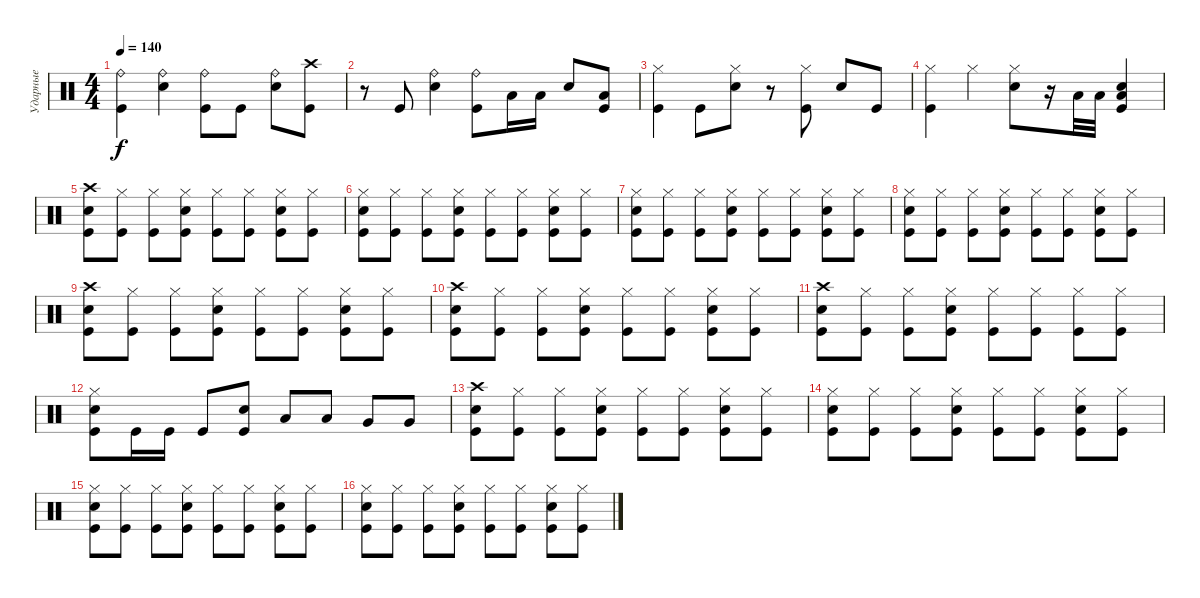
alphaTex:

\track ("Ударные" "Ударные") {instrument percussion}
\staff {score}
\articulation defaults
\ts (4 4)
\tempo 140
\clef neutral
\ks c
("Ride (bell)" "Kick (hit)").4{dy f} ("Ride (bell)" "Electric Snare (hit)").4 ("Ride (bell)" "Kick (hit)").8 "Kick (hit)".8 ("Ride (bell)" "Electric Snare (hit)").8 ("Crash high (hit)" "Kick (hit)").8 |
r.8 "Kick (hit)".8 ("Ride (bell)" "Electric Snare (hit)").4 ("Ride (bell)" "Kick (hit)").8 "Low Tom (hit)".16 "Low Tom (hit)".16 "Electric Snare (hit)".8 ("Low Tom (hit)" "Kick (hit)").8 |
("Hi-Hat (closed)" "Kick (hit)").4 "Kick (hit)".8 ("Hi-Hat (closed)" "Electric Snare (hit)").8 r.8 ("Hi-Hat (closed)" "Kick (hit)").8 "Electric Snare (hit)".8 "Kick (hit)".8 |
("Hi-Hat (closed)" "Kick (hit)").4 "Hi-Hat (closed)".4 ("Hi-Hat (closed)" "Electric Snare (hit)").8 r.16 "Low Tom (hit)".32 "Low Tom (hit)".32 ("Low Tom (hit)" "Electric Snare (hit)" "Kick (hit)").4 |
("Crash high (hit)" "Electric Snare (hit)" "Kick (hit)").8 ("Hi-Hat (closed)" "Kick (hit)").8 ("Hi-Hat (closed)" "Kick (hit)").8 ("Hi-Hat (closed)" "Electric Snare (hit)" "Kick (hit)").8 ("Hi-Hat (closed)" "Kick (hit)").8 ("Hi-Hat (closed)" "Kick (hit)").8 ("Hi-Hat (closed)" "Electric Snare (hit)" "Kick (hit)").8 ("Hi-Hat (closed)" "Kick (hit)").8 |
("Hi-Hat (closed)" "Electric Snare (hit)" "Kick (hit)").8 ("Hi-Hat (closed)" "Kick (hit)").8 ("Hi-Hat (closed)" "Kick (hit)").8 ("Hi-Hat (closed)" "Electric Snare (hit)" "Kick (hit)").8 ("Hi-Hat (closed)" "Kick (hit)").8 ("Hi-Hat (closed)" "Kick (hit)").8 ("Hi-Hat (closed)" "Electric Snare (hit)" "Kick (hit)").8 ("Hi-Hat (closed)" "Kick (hit)").8 |
("Hi-Hat (closed)" "Electric Snare (hit)" "Kick (hit)").8 ("Hi-Hat (closed)" "Kick (hit)").8 ("Hi-Hat (closed)" "Kick (hit)").8 ("Hi-Hat (closed)" "Electric Snare (hit)" "Kick (hit)").8 ("Hi-Hat (closed)" "Kick (hit)").8 ("Hi-Hat (closed)" "Kick (hit)").8 ("Hi-Hat (closed)" "Electric Snare (hit)" "Kick (hit)").8 ("Hi-Hat (closed)" "Kick (hit)").8 |
("Hi-Hat (closed)" "Electric Snare (hit)" "Kick (hit)").8 ("Hi-Hat (closed)" "Kick (hit)").8 ("Hi-Hat (closed)" "Kick (hit)").8 ("Hi-Hat (closed)" "Electric Snare (hit)" "Kick (hit)").8 ("Hi-Hat (closed)" "Kick (hit)").8 ("Hi-Hat (closed)" "Kick (hit)").8 ("Hi-Hat (closed)" "Electric Snare (hit)" "Kick (hit)").8 ("Hi-Hat (closed)" "Kick (hit)").8 |
("Crash high (hit)" "Electric Snare (hit)" "Kick (hit)").8 ("Hi-Hat (closed)" "Kick (hit)").8 ("Hi-Hat (closed)" "Kick (hit)").8 ("Hi-Hat (closed)" "Electric Snare (hit)" "Kick (hit)").8 ("Hi-Hat (closed)" "Kick (hit)").8 ("Hi-Hat (closed)" "Kick (hit)").8 ("Hi-Hat (closed)" "Electric Snare (hit)" "Kick (hit)").8 ("Hi-Hat (closed)" "Kick (hit)").8 |
("Crash high (hit)" "Electric Snare (hit)" "Kick (hit)").8 ("Hi-Hat (closed)" "Kick (hit)").8 ("Hi-Hat (closed)" "Kick (hit)").8 ("Hi-Hat (closed)" "Electric Snare (hit)" "Kick (hit)").8 ("Hi-Hat (closed)" "Kick (hit)").8 ("Hi-Hat (closed)" "Kick (hit)").8 ("Hi-Hat (closed)" "Electric Snare (hit)" "Kick (hit)").8 ("Hi-Hat (closed)" "Kick (hit)").8 |
("Crash high (hit)" "Electric Snare (hit)" "Kick (hit)").8 ("Hi-Hat (closed)" "Kick (hit)").8 ("Hi-Hat (closed)" "Kick (hit)").8 ("Hi-Hat (closed)" "Electric Snare (hit)" "Kick (hit)").8 ("Hi-Hat (closed)" "Kick (hit)").8 ("Hi-Hat (closed)" "Kick (hit)").8 ("Hi-Hat (closed)" "Kick (hit)").8 ("Hi-Hat (closed)" "Kick (hit)").8 |
("Hi-Hat (closed)" "Electric Snare (hit)" "Kick (hit)").8 "Kick (hit)".16 "Kick (hit)".16 "Kick (hit)".8 ("Electric Snare (hit)" "Kick (hit)").8 "Low Tom (hit)".8 "Low Tom (hit)".8 "Very Low Tom (hit)".8 "Very Low Tom (hit)".8 |
("Crash high (hit)" "Electric Snare (hit)" "Kick (hit)").8 ("Hi-Hat (closed)" "Kick (hit)").8 ("Hi-Hat (closed)" "Kick (hit)").8 ("Hi-Hat (closed)" "Electric Snare (hit)" "Kick (hit)").8 ("Hi-Hat (closed)" "Kick (hit)").8 ("Hi-Hat (closed)" "Kick (hit)").8 ("Hi-Hat (closed)" "Electric Snare (hit)" "Kick (hit)").8 ("Hi-Hat (closed)" "Kick (hit)").8 |
("Hi-Hat (closed)" "Electric Snare (hit)" "Kick (hit)").8 ("Hi-Hat (closed)" "Kick (hit)").8 ("Hi-Hat (closed)" "Kick (hit)").8 ("Hi-Hat (closed)" "Electric Snare (hit)" "Kick (hit)").8 ("Hi-Hat (closed)" "Kick (hit)").8 ("Hi-Hat (closed)" "Kick (hit)").8 ("Hi-Hat (closed)" "Electric Snare (hit)" "Kick (hit)").8 ("Hi-Hat (closed)" "Kick (hit)").8 |
("Hi-Hat (closed)" "Electric Snare (hit)" "Kick (hit)").8 ("Hi-Hat (closed)" "Kick (hit)").8 ("Hi-Hat (closed)" "Kick (hit)").8 ("Hi-Hat (closed)" "Electric Snare (hit)" "Kick (hit)").8 ("Hi-Hat (closed)" "Kick (hit)").8 ("Hi-Hat (closed)" "Kick (hit)").8 ("Hi-Hat (closed)" "Electric Snare (hit)" "Kick (hit)").8 ("Hi-Hat (closed)" "Kick (hit)").8 |
("Hi-Hat (closed)" "Electric Snare (hit)" "Kick (hit)").8 ("Hi-Hat (closed)" "Kick (hit)").8 ("Hi-Hat (closed)" "Kick (hit)").8 ("Hi-Hat (closed)" "Electric Snare (hit)" "Kick (hit)").8 ("Hi-Hat (closed)" "Kick (hit)").8 ("Hi-Hat (closed)" "Kick (hit)").8 ("Hi-Hat (closed)" "Electric Snare (hit)" "Kick (hit)").8 ("Hi-Hat (closed)" "Kick (hit)").8
